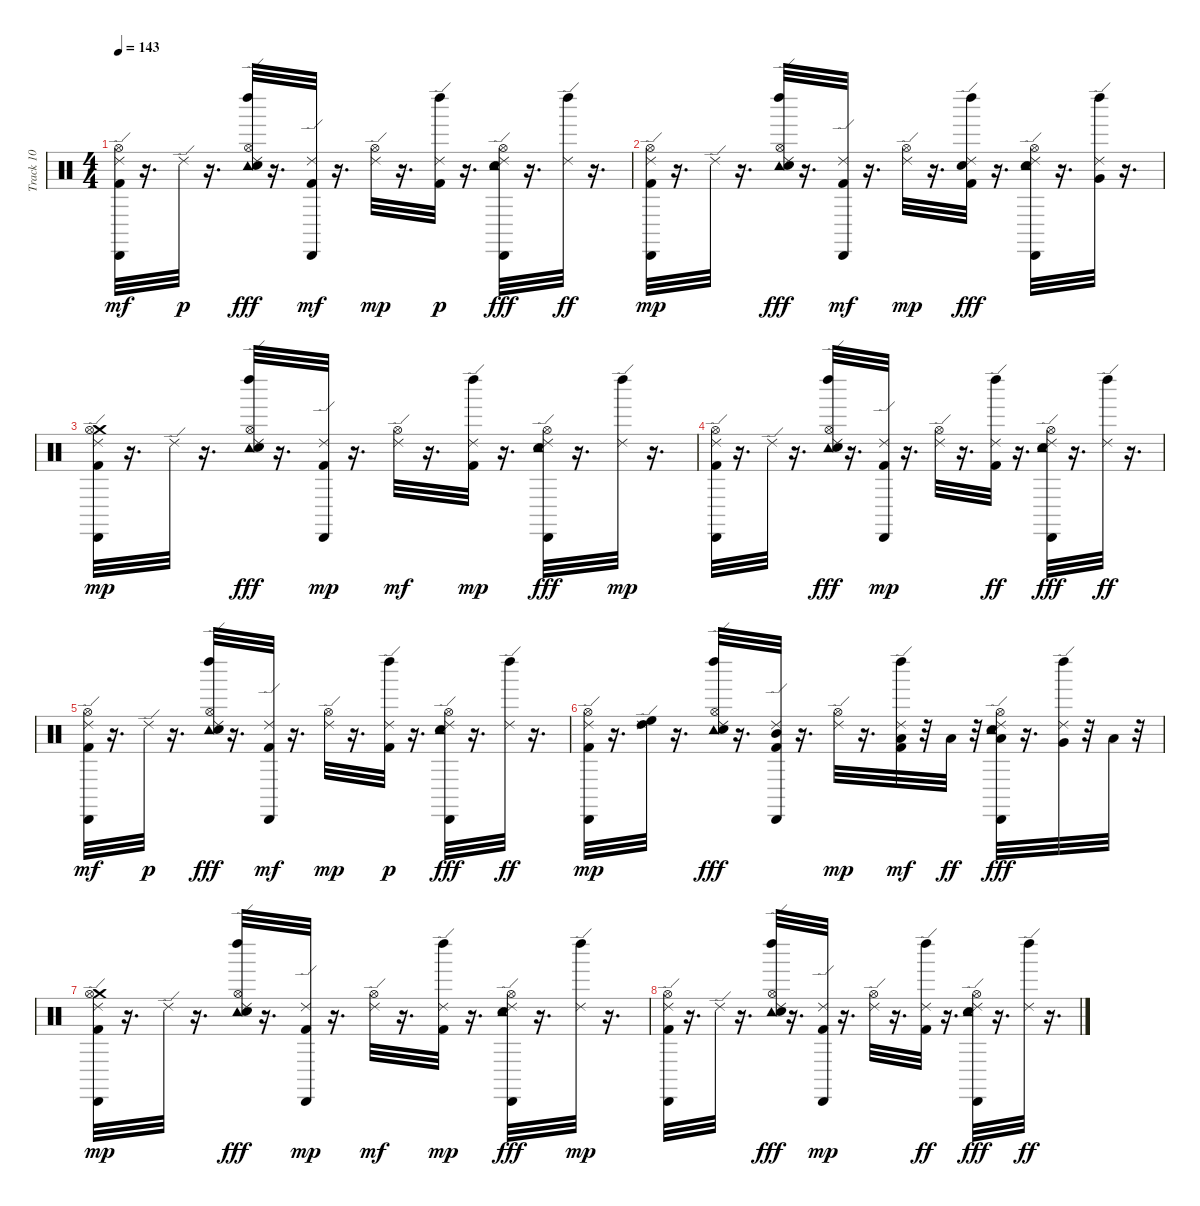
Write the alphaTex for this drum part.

\track ("Track 10" "Track 10") {instrument percussion}
\staff {score}
\articulation defaults
\ts (4 4)
\tempo 143
\clef neutral
\ks c
("Kick (hit) 2" "Ride (edge) 2" "Cabasa (hit)" "Hi-Hat (open)").32{dy mf} r.16{d} "Ride (edge) 2".32{dy p} r.16{d} ("Ride (edge) 2" "Tambourine (hit)" "Left Maraca (hit)" "Hi-Hat (open)" "Snare (hit) 2").32{dy fff} r.16{d} ("Kick (hit) 2" "Ride (edge) 2" "Cabasa (hit)").32{dy mf} r.16{d} ("Ride (edge) 2" "Hi-Hat (open)").32{dy mp} r.16{d} ("Kick (hit) 2" "Ride (edge) 2" "Left Maraca (hit)").32{dy p} r.16{d} ("Ride (edge) 2" "Tambourine (hit)" "Cabasa (hit)" "Hi-Hat (open)" "Snare (hit) 2").32{dy fff} r.16{d} ("Ride (edge) 2" "Left Maraca (hit)").32{dy ff} r.16{d} |
("Kick (hit) 2" "Ride (edge) 2" "Cabasa (hit)" "Hi-Hat (open)").32{dy mp} r.16{d} "Ride (edge) 2".32 r.16{d} ("Ride (edge) 2" "Tambourine (hit)" "Left Maraca (hit)" "Hi-Hat (open)" "Snare (hit) 2").32{dy fff} r.16{d} ("Kick (hit) 2" "Ride (edge) 2" "Cabasa (hit)").32{dy mf} r.16{d} ("Ride (edge) 2" "Hi-Hat (open)").32{dy mp} r.16{d} ("Kick (hit) 2" "Ride (edge) 2" "Left Maraca (hit)" "Snare (hit) 2").32{dy fff} r.16{d} ("Ride (edge) 2" "Tambourine (hit)" "Cabasa (hit)" "Hi-Hat (open)" "Snare (hit) 2").32 r.16{d} ("Ride (edge) 2" "Left Maraca (hit)" "Very Low Tom (hit)").32 r.16{d} |
("Kick (hit) 2" "Crash medium (hit)" "Ride (edge) 2" "Cabasa (hit)" "Hi-Hat (open)").32{dy mp} r.16{d} "Ride (edge) 2".32 r.16{d} ("Ride (edge) 2" "Tambourine (hit)" "Left Maraca (hit)" "Hi-Hat (open)" "Snare (hit) 2").32{dy fff} r.16{d} ("Kick (hit) 2" "Ride (edge) 2" "Cabasa (hit)").32{dy mp} r.16{d} ("Ride (edge) 2" "Hi-Hat (open)").32{dy mf} r.16{d} ("Kick (hit) 2" "Ride (edge) 2" "Left Maraca (hit)").32{dy mp} r.16{d} ("Ride (edge) 2" "Tambourine (hit)" "Cabasa (hit)" "Hi-Hat (open)" "Snare (hit) 2").32{dy fff} r.16{d} ("Ride (edge) 2" "Left Maraca (hit)").32{dy mp} r.16{d} |
("Kick (hit) 2" "Ride (edge) 2" "Cabasa (hit)" "Hi-Hat (open)").32 r.16{d} "Ride (edge) 2".32 r.16{d} ("Ride (edge) 2" "Tambourine (hit)" "Left Maraca (hit)" "Hi-Hat (open)" "Snare (hit) 2").32{dy fff} r.16{d} ("Kick (hit) 2" "Ride (edge) 2" "Cabasa (hit)").32{dy mp} r.16{d} ("Ride (edge) 2" "Hi-Hat (open)").32 r.16{d} ("Kick (hit) 2" "Ride (edge) 2" "Left Maraca (hit)").32{dy ff} r.16{d} ("Ride (edge) 2" "Tambourine (hit)" "Cabasa (hit)" "Hi-Hat (open)" "Snare (hit) 2").32{dy fff} r.16{d} ("Ride (edge) 2" "Left Maraca (hit)").32{dy ff} r.16{d} |
("Kick (hit) 2" "Ride (edge) 2" "Cabasa (hit)" "Hi-Hat (open)").32{dy mf} r.16{d} "Ride (edge) 2".32{dy p} r.16{d} ("Ride (edge) 2" "Tambourine (hit)" "Left Maraca (hit)" "Hi-Hat (open)" "Snare (hit) 2").32{dy fff} r.16{d} ("Kick (hit) 2" "Ride (edge) 2" "Cabasa (hit)").32{dy mf} r.16{d} ("Ride (edge) 2" "Hi-Hat (open)").32{dy mp} r.16{d} ("Kick (hit) 2" "Ride (edge) 2" "Left Maraca (hit)").32{dy p} r.16{d} ("Ride (edge) 2" "Tambourine (hit)" "Cabasa (hit)" "Hi-Hat (open)" "Snare (hit) 2").32{dy fff} r.16{d} ("Ride (edge) 2" "Left Maraca (hit)").32{dy ff} r.16{d} |
("Kick (hit) 2" "Ride (edge) 2" "Cabasa (hit)" "Hi-Hat (open)").32{dy mp} r.16{d} ("Ride (edge) 2" "High Tom (hit)" "High Floor Tom (hit)").32 r.16{d} ("Ride (edge) 2" "Tambourine (hit)" "Left Maraca (hit)" "Hi-Hat (open)" "Snare (hit) 2").32{dy fff} r.16{d} ("Kick (hit) 2" "Ride (edge) 2" "Cabasa (hit)" "Mid Tom (hit)").32 r.16{d} ("Ride (edge) 2" "Hi-Hat (open)").32{dy mp} r.16{d} ("Kick (hit) 2" "Ride (edge) 2" "Low Tom (hit)" "Left Maraca (hit)").32{dy mf} r.32 "Low Tom (hit)".32{dy ff} r.32 ("Ride (edge) 2" "Tambourine (hit)" "Cabasa (hit)" "Hi-Hat (open)" "Snare (hit) 2" "Low Tom (hit)").32{dy fff} r.16{d} ("Ride (edge) 2" "Left Maraca (hit)" "Very Low Tom (hit)").32 r.32 "Low Floor Tom (hit)".32 r.32 |
("Kick (hit) 2" "Crash medium (hit)" "Ride (edge) 2" "Cabasa (hit)" "Hi-Hat (open)").32{dy mp} r.16{d} "Ride (edge) 2".32 r.16{d} ("Ride (edge) 2" "Tambourine (hit)" "Left Maraca (hit)" "Hi-Hat (open)" "Snare (hit) 2").32{dy fff} r.16{d} ("Kick (hit) 2" "Ride (edge) 2" "Cabasa (hit)").32{dy mp} r.16{d} ("Ride (edge) 2" "Hi-Hat (open)").32{dy mf} r.16{d} ("Kick (hit) 2" "Ride (edge) 2" "Left Maraca (hit)").32{dy mp} r.16{d} ("Ride (edge) 2" "Tambourine (hit)" "Cabasa (hit)" "Hi-Hat (open)" "Snare (hit) 2").32{dy fff} r.16{d} ("Ride (edge) 2" "Left Maraca (hit)").32{dy mp} r.16{d} |
("Kick (hit) 2" "Ride (edge) 2" "Cabasa (hit)" "Hi-Hat (open)").32 r.16{d} "Ride (edge) 2".32 r.16{d} ("Ride (edge) 2" "Tambourine (hit)" "Left Maraca (hit)" "Hi-Hat (open)" "Snare (hit) 2").32{dy fff} r.16{d} ("Kick (hit) 2" "Ride (edge) 2" "Cabasa (hit)").32{dy mp} r.16{d} ("Ride (edge) 2" "Hi-Hat (open)").32 r.16{d} ("Kick (hit) 2" "Ride (edge) 2" "Left Maraca (hit)").32{dy ff} r.16{d} ("Ride (edge) 2" "Tambourine (hit)" "Cabasa (hit)" "Hi-Hat (open)" "Snare (hit) 2").32{dy fff} r.16{d} ("Ride (edge) 2" "Left Maraca (hit)").32{dy ff} r.16{d}
